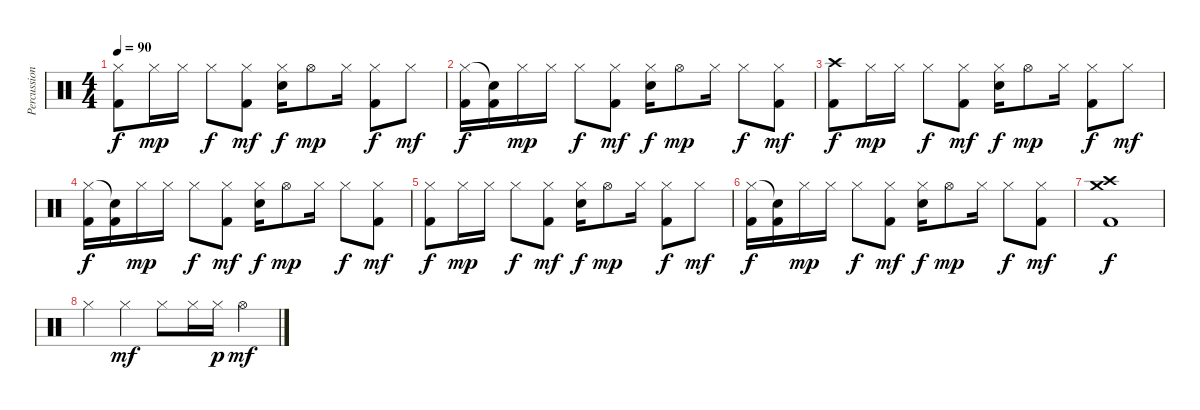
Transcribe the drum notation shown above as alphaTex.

\track ("Percussions" "Percussion") {instrument percussion}
\staff {score}
\articulation defaults
\ts (4 4)
\tempo 90
\clef neutral
\ks c
("Hi-Hat (closed)" "Kick (hit) 2").8{dy f} "Hi-Hat (closed)".16{dy mp} "Hi-Hat (closed)".16 "Hi-Hat (closed)".8{dy f} ("Hi-Hat (closed)" "Kick (hit) 2").8{dy mf} ("Hi-Hat (closed)" "Snare (hit) 2").16{dy f} "Hi-Hat (open)".8{dy mp} "Hi-Hat (closed)".16 ("Hi-Hat (closed)" "Kick (hit) 2").8{dy f} "Hi-Hat (closed)".8{dy mf} |
("Hi-Hat (closed)" "Kick (hit) 2").16{dy f} ("Snare (hit)"{t} "Kick (hit) 2").16 "Hi-Hat (closed)".16{dy mp} "Hi-Hat (closed)".16 "Hi-Hat (closed)".8{dy f} ("Hi-Hat (closed)" "Kick (hit) 2").8{dy mf} ("Hi-Hat (closed)" "Snare (hit) 2").16{dy f} "Hi-Hat (open)".8{dy mp} "Hi-Hat (closed)".16 "Hi-Hat (closed)".8{dy f} ("Hi-Hat (closed)" "Kick (hit) 2").8{dy mf} |
("Crash high (hit)" "Kick (hit) 2").8{dy f} "Hi-Hat (closed)".16{dy mp} "Hi-Hat (closed)".16 "Hi-Hat (closed)".8{dy f} ("Hi-Hat (closed)" "Kick (hit) 2").8{dy mf} ("Hi-Hat (closed)" "Snare (hit) 2").16{dy f} "Hi-Hat (open)".8{dy mp} "Hi-Hat (closed)".16 ("Hi-Hat (closed)" "Kick (hit) 2").8{dy f} "Hi-Hat (closed)".8{dy mf} |
("Hi-Hat (closed)" "Kick (hit) 2").16{dy f} ("Snare (hit)"{t} "Kick (hit) 2").16 "Hi-Hat (closed)".16{dy mp} "Hi-Hat (closed)".16 "Hi-Hat (closed)".8{dy f} ("Hi-Hat (closed)" "Kick (hit) 2").8{dy mf} ("Hi-Hat (closed)" "Snare (hit) 2").16{dy f} "Hi-Hat (open)".8{dy mp} "Hi-Hat (closed)".16 "Hi-Hat (closed)".8{dy f} ("Hi-Hat (closed)" "Kick (hit) 2").8{dy mf} |
("Hi-Hat (closed)" "Kick (hit) 2").8{dy f} "Hi-Hat (closed)".16{dy mp} "Hi-Hat (closed)".16 "Hi-Hat (closed)".8{dy f} ("Hi-Hat (closed)" "Kick (hit) 2").8{dy mf} ("Hi-Hat (closed)" "Snare (hit) 2").16{dy f} "Hi-Hat (open)".8{dy mp} "Hi-Hat (closed)".16 ("Hi-Hat (closed)" "Kick (hit) 2").8{dy f} "Hi-Hat (closed)".8{dy mf} |
("Hi-Hat (closed)" "Kick (hit) 2").16{dy f} ("Snare (hit)"{t} "Kick (hit) 2").16 "Hi-Hat (closed)".16{dy mp} "Hi-Hat (closed)".16 "Hi-Hat (closed)".8{dy f} ("Hi-Hat (closed)" "Kick (hit) 2").8{dy mf} ("Hi-Hat (closed)" "Snare (hit) 2").16{dy f} "Hi-Hat (open)".8{dy mp} "Hi-Hat (closed)".16 "Hi-Hat (closed)".8{dy f} ("Hi-Hat (closed)" "Kick (hit) 2").8{dy mf} |
("Crash high (hit)" "Crash medium (hit)" "Kick (hit) 2").1{dy f} |
"Hi-Hat (closed)".4 "Hi-Hat (closed)".4{dy mf} "Hi-Hat (closed)".8 "Hi-Hat (closed)".16 "Hi-Hat (closed)".16{dy p} "Hi-Hat (open)".4{dy mf}
